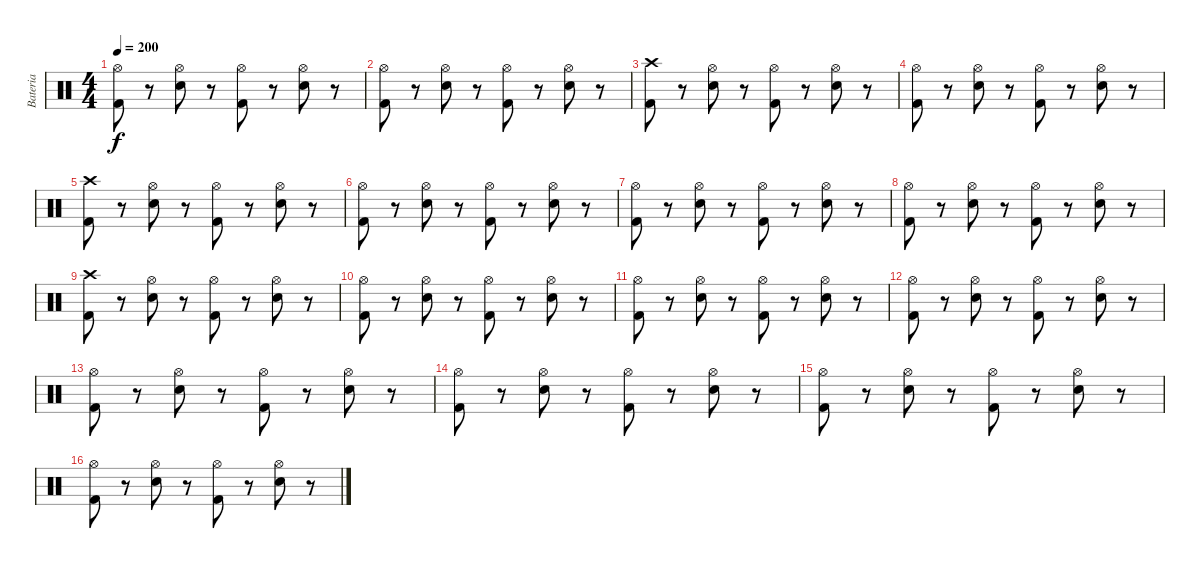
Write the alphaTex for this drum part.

\track ("Bateria" "Bateria") {instrument percussion}
\staff {score}
\articulation defaults
\ts (4 4)
\tempo 200
\clef neutral
\ks c
("Hi-Hat (open)" "Kick (hit) 2").8{dy f} r.8 ("Hi-Hat (open)" "Snare (hit) 2").8 r.8 ("Hi-Hat (open)" "Kick (hit) 2").8 r.8 ("Hi-Hat (open)" "Snare (hit) 2").8 r.8 |
("Hi-Hat (open)" "Kick (hit) 2").8 r.8 ("Hi-Hat (open)" "Snare (hit) 2").8 r.8 ("Hi-Hat (open)" "Kick (hit) 2").8 r.8 ("Hi-Hat (open)" "Snare (hit) 2").8 r.8 |
("Crash high (hit)" "Kick (hit) 2").8 r.8 ("Hi-Hat (open)" "Snare (hit) 2").8 r.8 ("Hi-Hat (open)" "Kick (hit) 2").8 r.8 ("Hi-Hat (open)" "Snare (hit) 2").8 r.8 |
("Hi-Hat (open)" "Kick (hit) 2").8 r.8 ("Hi-Hat (open)" "Snare (hit) 2").8 r.8 ("Hi-Hat (open)" "Kick (hit) 2").8 r.8 ("Hi-Hat (open)" "Snare (hit) 2").8 r.8 |
("Crash high (hit)" "Kick (hit) 2").8 r.8 ("Hi-Hat (open)" "Snare (hit) 2").8 r.8 ("Hi-Hat (open)" "Kick (hit) 2").8 r.8 ("Hi-Hat (open)" "Snare (hit) 2").8 r.8 |
("Hi-Hat (open)" "Kick (hit) 2").8 r.8 ("Hi-Hat (open)" "Snare (hit) 2").8 r.8 ("Hi-Hat (open)" "Kick (hit) 2").8 r.8 ("Hi-Hat (open)" "Snare (hit) 2").8 r.8 |
("Hi-Hat (open)" "Kick (hit) 2").8 r.8 ("Hi-Hat (open)" "Snare (hit) 2").8 r.8 ("Hi-Hat (open)" "Kick (hit) 2").8 r.8 ("Hi-Hat (open)" "Snare (hit) 2").8 r.8 |
("Hi-Hat (open)" "Kick (hit) 2").8 r.8 ("Hi-Hat (open)" "Snare (hit) 2").8 r.8 ("Hi-Hat (open)" "Kick (hit) 2").8 r.8 ("Hi-Hat (open)" "Snare (hit) 2").8 r.8 |
("Crash high (hit)" "Kick (hit) 2").8 r.8 ("Hi-Hat (open)" "Snare (hit) 2").8 r.8 ("Hi-Hat (open)" "Kick (hit) 2").8 r.8 ("Hi-Hat (open)" "Snare (hit) 2").8 r.8 |
("Hi-Hat (open)" "Kick (hit) 2").8 r.8 ("Hi-Hat (open)" "Snare (hit) 2").8 r.8 ("Hi-Hat (open)" "Kick (hit) 2").8 r.8 ("Hi-Hat (open)" "Snare (hit) 2").8 r.8 |
("Hi-Hat (open)" "Kick (hit) 2").8 r.8 ("Hi-Hat (open)" "Snare (hit) 2").8 r.8 ("Hi-Hat (open)" "Kick (hit) 2").8 r.8 ("Hi-Hat (open)" "Snare (hit) 2").8 r.8 |
("Hi-Hat (open)" "Kick (hit) 2").8 r.8 ("Hi-Hat (open)" "Snare (hit) 2").8 r.8 ("Hi-Hat (open)" "Kick (hit) 2").8 r.8 ("Hi-Hat (open)" "Snare (hit) 2").8 r.8 |
("Hi-Hat (open)" "Kick (hit) 2").8 r.8 ("Hi-Hat (open)" "Snare (hit) 2").8 r.8 ("Hi-Hat (open)" "Kick (hit) 2").8 r.8 ("Hi-Hat (open)" "Snare (hit) 2").8 r.8 |
("Hi-Hat (open)" "Kick (hit) 2").8 r.8 ("Hi-Hat (open)" "Snare (hit) 2").8 r.8 ("Hi-Hat (open)" "Kick (hit) 2").8 r.8 ("Hi-Hat (open)" "Snare (hit) 2").8 r.8 |
("Hi-Hat (open)" "Kick (hit) 2").8 r.8 ("Hi-Hat (open)" "Snare (hit) 2").8 r.8 ("Hi-Hat (open)" "Kick (hit) 2").8 r.8 ("Hi-Hat (open)" "Snare (hit) 2").8 r.8 |
("Hi-Hat (open)" "Kick (hit) 2").8 r.8 ("Hi-Hat (open)" "Snare (hit) 2").8 r.8 ("Hi-Hat (open)" "Kick (hit) 2").8 r.8 ("Hi-Hat (open)" "Snare (hit) 2").8 r.8
